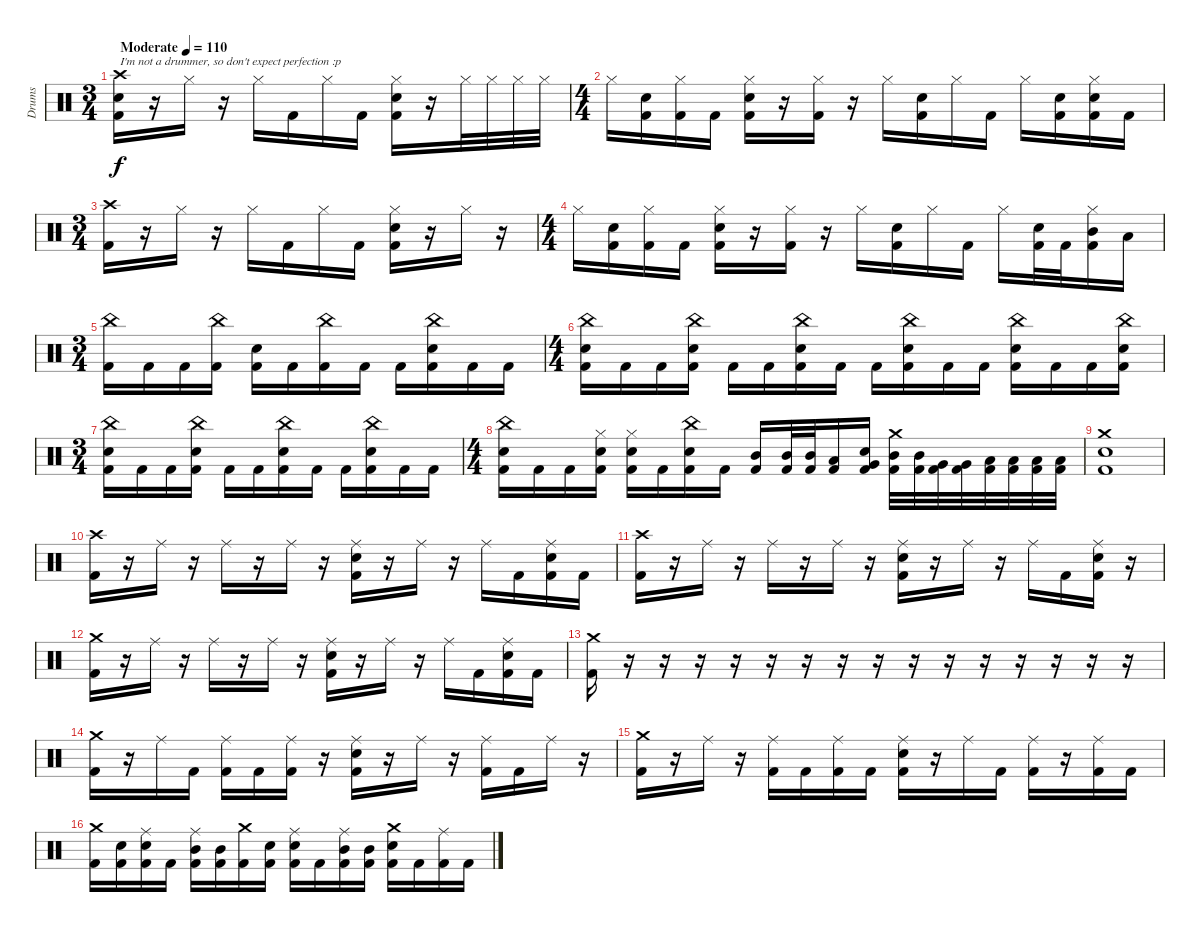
\track ("Drums" "Drums") {instrument percussion}
\staff {score}
\articulation defaults
\ts (3 4)
\tempo (110 "Moderate")
\clef neutral
\ks c
("Crash high (hit)" "Snare (hit) 2" "Kick (hit) 2").16{txt "I'm not a drummer, so don't expect perfection :p" dy f} r.16 "Hi-Hat (closed)".16 r.16 "Hi-Hat (closed)".16 "Kick (hit) 2".16 "Hi-Hat (closed)".16 "Kick (hit) 2".16 ("Hi-Hat (closed)" "Snare (hit) 2" "Kick (hit) 2").16 r.16 "Hi-Hat (closed)".32 "Hi-Hat (closed)".32 "Hi-Hat (closed)".32 "Hi-Hat (closed)".32 |
\ts (4 4)
"Hi-Hat (closed)".16 ("Snare (hit) 2" "Kick (hit) 2").16 ("Hi-Hat (closed)" "Kick (hit) 2").16 "Kick (hit) 2".16 ("Hi-Hat (closed)" "Snare (hit) 2" "Kick (hit) 2").16 r.16 ("Hi-Hat (closed)" "Kick (hit) 2").16 r.16 "Hi-Hat (closed)".16 ("Snare (hit) 2" "Kick (hit) 2").16 "Hi-Hat (closed)".16 "Kick (hit) 2".16 "Hi-Hat (closed)".16 ("Snare (hit) 2" "Kick (hit) 2").16 ("Hi-Hat (closed)" "Snare (hit) 2" "Kick (hit) 2").16 "Kick (hit) 2".16 |
\ts (3 4)
("Crash high (hit)" "Kick (hit) 2").16 r.16 "Hi-Hat (closed)".16 r.16 "Hi-Hat (closed)".16 "Kick (hit) 2".16 "Hi-Hat (closed)".16 "Kick (hit) 2".16 ("Hi-Hat (closed)" "Snare (hit) 2" "Kick (hit) 2").16 r.16 "Hi-Hat (closed)".16 r.16 |
\ts (4 4)
"Hi-Hat (closed)".16 ("Snare (hit) 2" "Kick (hit) 2").16 ("Hi-Hat (closed)" "Kick (hit) 2").16 "Kick (hit) 2".16 ("Hi-Hat (closed)" "Snare (hit) 2" "Kick (hit) 2").16 r.16 ("Hi-Hat (closed)" "Kick (hit) 2").16 r.16 "Hi-Hat (closed)".16 ("Snare (hit) 2" "Kick (hit) 2").16 "Hi-Hat (closed)".16 "Kick (hit) 2".16 "Hi-Hat (closed)".16 ("Snare (hit) 2" "Kick (hit) 2").32 "Kick (hit) 2".32 ("Hi-Hat (closed)" "Mid Tom (hit)" "Kick (hit) 2").16 "Low Tom (hit)".16 |
\ts (3 4)
("China (hit)" "Kick (hit) 2").16 "Kick (hit) 2".16 "Kick (hit) 2".16 ("China (hit)" "Kick (hit) 2").16 ("Snare (hit) 2" "Kick (hit) 2").16 "Kick (hit) 2".16 ("China (hit)" "Kick (hit) 2").16 "Kick (hit) 2".16 "Kick (hit) 2".16 ("China (hit)" "Snare (hit) 2" "Kick (hit) 2").16 "Kick (hit) 2".16 "Kick (hit) 2".16 |
\ts (4 4)
("China (hit)" "Snare (hit) 2" "Kick (hit) 2").16 "Kick (hit) 2".16 "Kick (hit) 2".16 ("China (hit)" "Snare (hit) 2" "Kick (hit) 2").16 "Kick (hit) 2".16 "Kick (hit) 2".16 ("China (hit)" "Snare (hit) 2" "Kick (hit) 2").16 "Kick (hit) 2".16 "Kick (hit) 2".16 ("China (hit)" "Snare (hit) 2" "Kick (hit) 2").16 "Kick (hit) 2".16 "Kick (hit) 2".16 ("China (hit)" "Snare (hit) 2" "Kick (hit) 2").16 "Kick (hit) 2".16 "Kick (hit) 2".16 ("China (hit)" "Snare (hit) 2" "Kick (hit) 2").16 |
\ts (3 4)
("China (hit)" "Snare (hit) 2" "Kick (hit) 2").16 "Kick (hit) 2".16 "Kick (hit) 2".16 ("China (hit)" "Snare (hit) 2" "Kick (hit) 2").16 "Kick (hit) 2".16 "Kick (hit) 2".16 ("China (hit)" "Snare (hit) 2" "Kick (hit) 2").16 "Kick (hit) 2".16 "Kick (hit) 2".16 ("China (hit)" "Snare (hit) 2" "Kick (hit) 2").16 "Kick (hit) 2".16 "Kick (hit) 2".16 |
\ts (4 4)
("China (hit)" "Snare (hit) 2" "Kick (hit) 2").16 "Kick (hit) 2".16 "Kick (hit) 2".16 ("Hi-Hat (closed)" "Snare (hit) 2" "Kick (hit) 2").16 ("Hi-Hat (closed)" "Snare (hit) 2" "Kick (hit) 2").16 "Kick (hit) 2".16 ("China (hit)" "Snare (hit) 2" "Kick (hit) 2").16 "Kick (hit) 2".16 ("Mid Tom (hit)" "Kick (hit) 2").16 ("Mid Tom (hit)" "Kick (hit) 2").32 ("Mid Tom (hit)" "Kick (hit) 2").32 ("Low Tom (hit)" "Kick (hit) 2").16 ("Very Low Tom (hit)" "Snare (hit) 2" "Kick (hit) 2").16 ("Crash medium (hit)" "Mid Tom (hit)" "Kick (hit) 2").32 ("Mid Tom (hit)" "Kick (hit) 2").32 ("Very Low Tom (hit)" "Kick (hit) 2").32 ("Very Low Tom (hit)" "Kick (hit) 2").32 ("Low Tom (hit)" "Kick (hit) 2").32 ("Low Tom (hit)" "Kick (hit) 2").32 ("Low Floor Tom (hit)" "Kick (hit) 2").32 ("Low Floor Tom (hit)" "Kick (hit) 2").32 |
("Crash medium (hit)" "Snare (hit) 2" "Kick (hit) 2").1 |
("Crash high (hit)" "Kick (hit) 2").16 r.16 "Ride (middle)".16 r.16 "Ride (middle)".16 r.16 "Ride (middle)".16 r.16 ("Ride (middle)" "Snare (hit) 2" "Kick (hit) 2").16 r.16 "Ride (middle)".16 r.16 "Ride (middle)".16 "Kick (hit) 2".16 ("Ride (middle)" "Snare (hit) 2" "Kick (hit) 2").16 "Kick (hit) 2".16 |
("Crash high (hit)" "Kick (hit) 2").16 r.16 "Ride (middle)".16 r.16 "Ride (middle)".16 r.16 "Ride (middle)".16 r.16 ("Ride (middle)" "Snare (hit) 2" "Kick (hit) 2").16 r.16 "Ride (middle)".16 r.16 "Ride (middle)".16 "Kick (hit) 2".16 ("Ride (middle)" "Snare (hit) 2" "Kick (hit) 2").16 r.16 |
("Crash medium (hit)" "Kick (hit) 2").16 r.16 "Ride (middle)".16 r.16 "Ride (middle)".16 r.16 "Ride (middle)".16 r.16 ("Ride (middle)" "Snare (hit) 2" "Kick (hit) 2").16 r.16 "Ride (middle)".16 r.16 "Ride (middle)".16 "Kick (hit) 2".16 ("Ride (middle)" "Snare (hit) 2" "Kick (hit) 2").16 "Kick (hit) 2".16 |
("Crash medium (hit)" "Kick (hit) 2").16 r.16 r.16 r.16 r.16 r.16 r.16 r.16 r.16 r.16 r.16 r.16 r.16 r.16 r.16 r.16 |
("Crash medium (hit)" "Kick (hit) 2").16 r.16 "Ride (middle)".16 "Kick (hit) 2".16 ("Ride (middle)" "Kick (hit) 2").16 "Kick (hit) 2".16 ("Ride (middle)" "Kick (hit) 2").16 r.16 ("Ride (middle)" "Snare (hit) 2" "Kick (hit) 2").16 r.16 "Ride (middle)".16 r.16 ("Ride (middle)" "Kick (hit) 2").16 "Kick (hit) 2".16 "Ride (middle)".16 r.16 |
("Crash medium (hit)" "Kick (hit) 2").16 r.16 "Ride (middle)".16 r.16 ("Ride (middle)" "Kick (hit) 2").16 "Kick (hit) 2".16 ("Ride (middle)" "Kick (hit) 2").16 "Kick (hit) 2".16 ("Ride (middle)" "Snare (hit) 2" "Kick (hit) 2").16 r.16 "Ride (middle)".16 "Kick (hit) 2".16 ("Ride (middle)" "Kick (hit) 2").16 r.16 ("Ride (middle)" "Kick (hit) 2").16 "Kick (hit) 2".16 |
("Crash medium (hit)" "Kick (hit) 2").16 ("Snare (hit) 2" "Kick (hit) 2").16 ("Ride (middle)" "Snare (hit) 2" "Kick (hit) 2").16 "Kick (hit) 2".16 ("Ride (middle)" "Mid Tom (hit)" "Kick (hit) 2").16 ("Mid Tom (hit)" "Kick (hit) 2").16 ("Crash medium (hit)" "Kick (hit) 2").16 ("Snare (hit) 2" "Kick (hit) 2").16 ("Ride (middle)" "Snare (hit) 2" "Kick (hit) 2").16 "Kick (hit) 2".16 ("Ride (middle)" "Mid Tom (hit)" "Kick (hit) 2").16 ("Mid Tom (hit)" "Kick (hit) 2").16 ("Crash medium (hit)" "Snare (hit) 2" "Kick (hit) 2").16 "Kick (hit) 2".16 ("Ride (middle)" "Kick (hit) 2").16 "Kick (hit) 2".16
